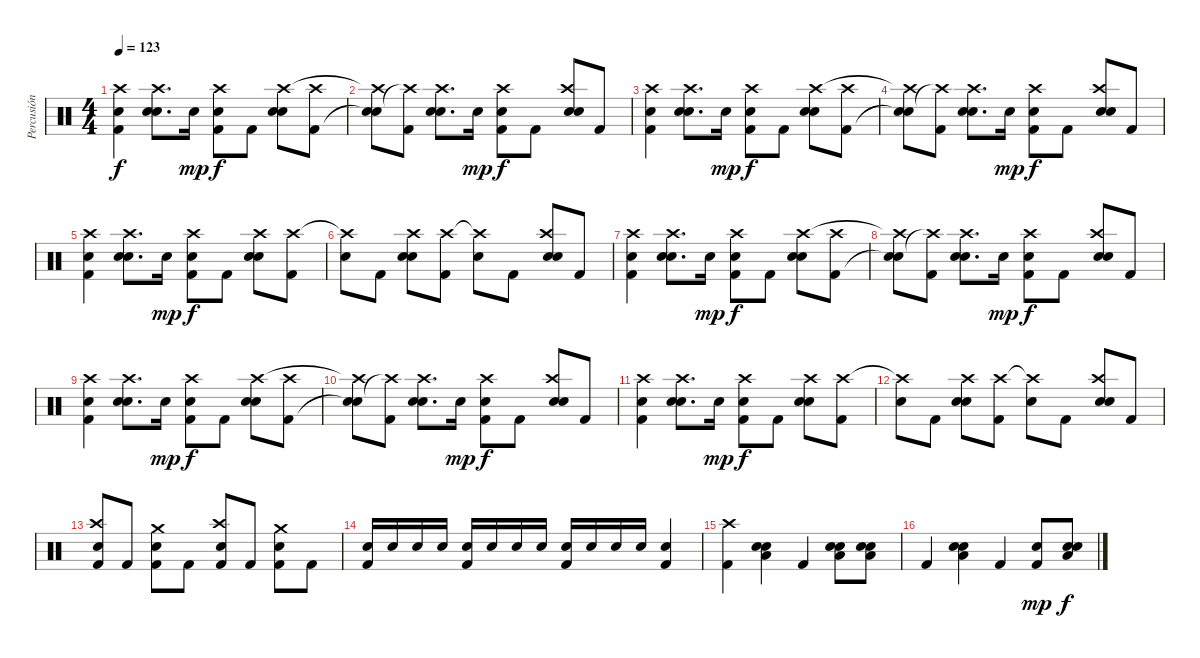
\track ("Percusión" "Percusión") {instrument percussion}
\staff {score}
\articulation defaults
\ts (4 4)
\tempo 123
\clef neutral
\ks c
("Metronome (bell)" "Kick (hit) 2" "Crash high (hit)").4{dy f} ("Snare (hit) 2" "Metronome (bell)" "Crash high (hit)").8{d} "Snare (hit) 2".16{dy mp} ("Metronome (bell)" "Kick (hit) 2" "Crash high (hit)").8{dy f} "Kick (hit) 2".8 ("Snare (hit) 2" "Metronome (bell)" "Crash high (hit)").8 ("Kick (hit) 2" "Crash high (hit)").8 |
("Metronome (bell)"{t} "Metronome (bell)" "Crash high (hit)"{t}).8 ("Kick (hit) 2" "Crash high (hit)"{t}).8 ("Snare (hit) 2" "Metronome (bell)" "Crash high (hit)").8{d} "Snare (hit) 2".16{dy mp} ("Metronome (bell)" "Kick (hit) 2" "Crash high (hit)").8{dy f} "Kick (hit) 2".8 ("Snare (hit) 2" "Metronome (bell)" "Crash high (hit)").8 "Kick (hit) 2".8 |
("Metronome (bell)" "Kick (hit) 2" "Crash high (hit)").4 ("Snare (hit) 2" "Metronome (bell)" "Crash high (hit)").8{d} "Snare (hit) 2".16{dy mp} ("Metronome (bell)" "Kick (hit) 2" "Crash high (hit)").8{dy f} "Kick (hit) 2".8 ("Snare (hit) 2" "Metronome (bell)" "Crash high (hit)").8 ("Kick (hit) 2" "Crash high (hit)").8 |
("Metronome (bell)"{t} "Metronome (bell)" "Crash high (hit)"{t}).8 ("Kick (hit) 2" "Crash high (hit)"{t}).8 ("Snare (hit) 2" "Metronome (bell)" "Crash high (hit)").8{d} "Snare (hit) 2".16{dy mp} ("Metronome (bell)" "Kick (hit) 2" "Crash high (hit)").8{dy f} "Kick (hit) 2".8 ("Snare (hit) 2" "Metronome (bell)" "Crash high (hit)").8 "Kick (hit) 2".8 |
("Metronome (bell)" "Kick (hit) 2" "Crash high (hit)").4 ("Snare (hit) 2" "Metronome (bell)" "Crash high (hit)").8{d} "Snare (hit) 2".16{dy mp} ("Metronome (bell)" "Kick (hit) 2" "Crash high (hit)").8{dy f} "Kick (hit) 2".8 ("Snare (hit) 2" "Metronome (bell)" "Crash high (hit)").8 ("Kick (hit) 2" "Crash high (hit)").8 |
("Metronome (bell)" "Crash high (hit)"{t}).8 "Kick (hit) 2".8 ("Snare (hit) 2" "Metronome (bell)" "Crash high (hit)").8 ("Kick (hit) 2" "Crash high (hit)").8 ("Metronome (bell)" "Crash high (hit)"{t}).8 "Kick (hit) 2".8 ("Snare (hit) 2" "Metronome (bell)" "Crash high (hit)").8 "Kick (hit) 2".8 |
("Metronome (bell)" "Kick (hit) 2" "Crash high (hit)").4 ("Snare (hit) 2" "Metronome (bell)" "Crash high (hit)").8{d} "Snare (hit) 2".16{dy mp} ("Metronome (bell)" "Kick (hit) 2" "Crash high (hit)").8{dy f} "Kick (hit) 2".8 ("Snare (hit) 2" "Metronome (bell)" "Crash high (hit)").8 ("Kick (hit) 2" "Crash high (hit)").8 |
("Metronome (bell)"{t} "Metronome (bell)" "Crash high (hit)"{t}).8 ("Kick (hit) 2" "Crash high (hit)"{t}).8 ("Snare (hit) 2" "Metronome (bell)" "Crash high (hit)").8{d} "Snare (hit) 2".16{dy mp} ("Metronome (bell)" "Kick (hit) 2" "Crash high (hit)").8{dy f} "Kick (hit) 2".8 ("Snare (hit) 2" "Metronome (bell)" "Crash high (hit)").8 "Kick (hit) 2".8 |
("Metronome (bell)" "Kick (hit) 2" "Crash high (hit)").4 ("Snare (hit) 2" "Metronome (bell)" "Crash high (hit)").8{d} "Snare (hit) 2".16{dy mp} ("Metronome (bell)" "Kick (hit) 2" "Crash high (hit)").8{dy f} "Kick (hit) 2".8 ("Snare (hit) 2" "Metronome (bell)" "Crash high (hit)").8 ("Kick (hit) 2" "Crash high (hit)").8 |
("Metronome (bell)"{t} "Metronome (bell)" "Crash high (hit)"{t}).8 ("Kick (hit) 2" "Crash high (hit)"{t}).8 ("Snare (hit) 2" "Metronome (bell)" "Crash high (hit)").8{d} "Snare (hit) 2".16{dy mp} ("Metronome (bell)" "Kick (hit) 2" "Crash high (hit)").8{dy f} "Kick (hit) 2".8 ("Snare (hit) 2" "Metronome (bell)" "Crash high (hit)").8 "Kick (hit) 2".8 |
("Metronome (bell)" "Kick (hit) 2" "Crash high (hit)").4 ("Snare (hit) 2" "Metronome (bell)" "Crash high (hit)").8{d} "Snare (hit) 2".16{dy mp} ("Metronome (bell)" "Kick (hit) 2" "Crash high (hit)").8{dy f} "Kick (hit) 2".8 ("Snare (hit) 2" "Metronome (bell)" "Crash high (hit)").8 ("Kick (hit) 2" "Crash high (hit)").8 |
("Metronome (bell)" "Crash high (hit)"{t}).8 "Kick (hit) 2".8 ("Snare (hit) 2" "Metronome (bell)" "Crash high (hit)").8 ("Kick (hit) 2" "Crash high (hit)").8 ("Metronome (bell)" "Crash high (hit)"{t}).8 "Kick (hit) 2".8 ("Snare (hit) 2" "Metronome (bell)" "Crash high (hit)").8 "Kick (hit) 2".8 |
("Snare (hit) 2" "Kick (hit) 2" "Crash high (hit)").8 "Kick (hit) 2".8 ("Snare (hit) 2" "Kick (hit) 2" "Crash medium (hit)").8 "Kick (hit) 2".8 ("Snare (hit) 2" "Kick (hit) 2" "Crash high (hit)").8 "Kick (hit) 2".8 ("Snare (hit) 2" "Kick (hit) 2" "Crash medium (hit)").8 "Kick (hit) 2".8 |
("Snare (hit) 2" "Kick (hit) 2").16 "Snare (hit) 2".16 "Snare (hit) 2".16 "Snare (hit) 2".16 ("Snare (hit) 2" "Kick (hit) 2").16 "Snare (hit) 2".16 "Snare (hit) 2".16 "Snare (hit) 2".16 ("Snare (hit) 2" "Kick (hit) 2").16 "Snare (hit) 2".16 "Snare (hit) 2".16 "Snare (hit) 2".16 ("Snare (hit) 2" "Kick (hit) 2").4 |
("Kick (hit) 2" "Crash high (hit)").4 ("Snare (hit) 2" "Low Tom (hit)" "Hand Clap (hit)").4 "Kick (hit) 2".4 ("Snare (hit) 2" "Low Tom (hit)" "Hand Clap (hit)").8 ("Snare (hit) 2" "Low Tom (hit)" "Hand Clap (hit)").8 |
"Kick (hit) 2".4 ("Snare (hit) 2" "Low Tom (hit)" "Hand Clap (hit)").4 "Kick (hit) 2".4 ("Kick (hit) 2" "Hand Clap (hit)").8{dy mp} ("Snare (hit) 2" "Low Tom (hit)" "Hand Clap (hit)").8{dy f}
